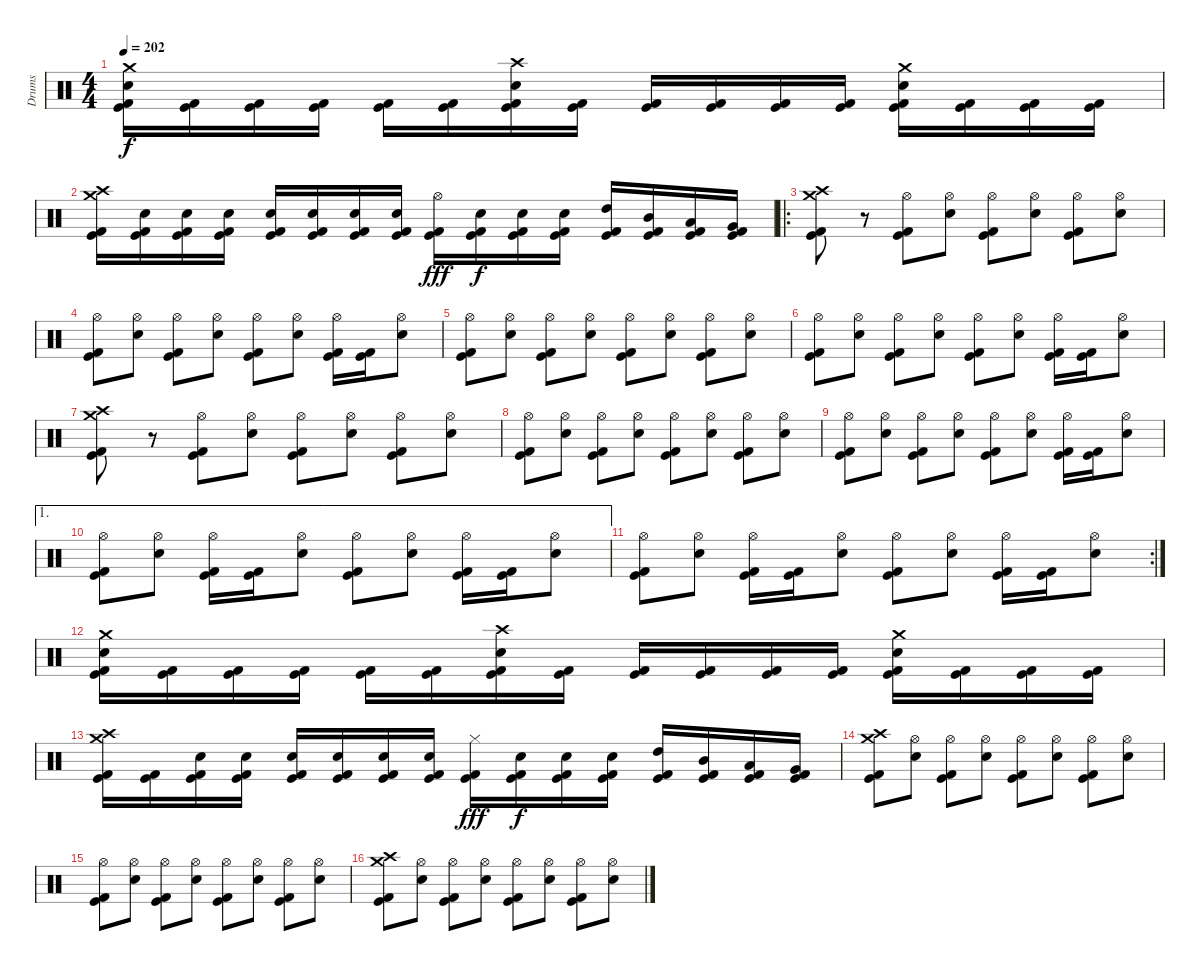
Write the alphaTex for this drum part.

\track ("Drums" "Drums") {instrument percussion}
\staff {score}
\articulation defaults
\ts (4 4)
\tempo 202
\clef neutral
\ks c
("Crash medium (hit)" "Electric Snare (hit)" "Kick (hit)" "Kick (hit) 2").16{dy f} ("Kick (hit)" "Kick (hit) 2").16 ("Kick (hit)" "Kick (hit) 2").16 ("Kick (hit)" "Kick (hit) 2").16 ("Kick (hit)" "Kick (hit) 2").16 ("Kick (hit)" "Kick (hit) 2").16 ("Crash high (hit)" "Electric Snare (hit)" "Kick (hit)" "Kick (hit) 2").16 ("Kick (hit)" "Kick (hit) 2").16 ("Kick (hit)" "Kick (hit) 2").16 ("Kick (hit)" "Kick (hit) 2").16 ("Kick (hit)" "Kick (hit) 2").16 ("Kick (hit)" "Kick (hit) 2").16 ("Crash medium (hit)" "Electric Snare (hit)" "Kick (hit)" "Kick (hit) 2").16 ("Kick (hit)" "Kick (hit) 2").16 ("Kick (hit)" "Kick (hit) 2").16 ("Kick (hit)" "Kick (hit) 2").16 |
("Crash medium (hit)" "Crash high (hit)" "Kick (hit)" "Kick (hit) 2").16 ("Electric Snare (hit)" "Kick (hit)" "Kick (hit) 2").16 ("Electric Snare (hit)" "Kick (hit)" "Kick (hit) 2").16 ("Electric Snare (hit)" "Kick (hit)" "Kick (hit) 2").16 ("Electric Snare (hit)" "Kick (hit)" "Kick (hit) 2").16 ("Electric Snare (hit)" "Kick (hit)" "Kick (hit) 2").16 ("Electric Snare (hit)" "Kick (hit)" "Kick (hit) 2").16 ("Electric Snare (hit)" "Kick (hit)" "Kick (hit) 2").16 ("Hi-Hat (open)" "Kick (hit)" "Kick (hit) 2").16{dy fff} ("Electric Snare (hit)" "Kick (hit)" "Kick (hit) 2").16{dy f} ("Electric Snare (hit)" "Kick (hit)" "Kick (hit) 2").16 ("Electric Snare (hit)" "Kick (hit)" "Kick (hit) 2").16 ("High Tom (hit)" "Kick (hit)" "Kick (hit) 2").16 ("Mid Tom (hit)" "Kick (hit)" "Kick (hit) 2").16 ("Low Tom (hit)" "Kick (hit)" "Kick (hit) 2").16 ("Very Low Tom (hit)" "Kick (hit)" "Kick (hit) 2").16 |
\ro
("Crash medium (hit)" "Crash high (hit)" "Kick (hit)" "Kick (hit) 2").8 r.8 ("Hi-Hat (open)" "Kick (hit)" "Kick (hit) 2").8 ("Hi-Hat (open)" "Electric Snare (hit)").8 ("Hi-Hat (open)" "Kick (hit)" "Kick (hit) 2").8 ("Hi-Hat (open)" "Electric Snare (hit)").8 ("Hi-Hat (open)" "Kick (hit)" "Kick (hit) 2").8 ("Hi-Hat (open)" "Electric Snare (hit)").8 |
("Hi-Hat (open)" "Kick (hit)" "Kick (hit) 2").8 ("Hi-Hat (open)" "Electric Snare (hit)").8 ("Hi-Hat (open)" "Kick (hit)" "Kick (hit) 2").8 ("Hi-Hat (open)" "Electric Snare (hit)").8 ("Hi-Hat (open)" "Kick (hit)" "Kick (hit) 2").8 ("Hi-Hat (open)" "Electric Snare (hit)").8 ("Hi-Hat (open)" "Kick (hit)" "Kick (hit) 2").16 ("Kick (hit)" "Kick (hit) 2").16 ("Hi-Hat (open)" "Electric Snare (hit)").8 |
("Hi-Hat (open)" "Kick (hit)" "Kick (hit) 2").8 ("Hi-Hat (open)" "Electric Snare (hit)").8 ("Hi-Hat (open)" "Kick (hit)" "Kick (hit) 2").8 ("Hi-Hat (open)" "Electric Snare (hit)").8 ("Hi-Hat (open)" "Kick (hit)" "Kick (hit) 2").8 ("Hi-Hat (open)" "Electric Snare (hit)").8 ("Hi-Hat (open)" "Kick (hit)" "Kick (hit) 2").8 ("Hi-Hat (open)" "Electric Snare (hit)").8 |
("Hi-Hat (open)" "Kick (hit)" "Kick (hit) 2").8 ("Hi-Hat (open)" "Electric Snare (hit)").8 ("Hi-Hat (open)" "Kick (hit)" "Kick (hit) 2").8 ("Hi-Hat (open)" "Electric Snare (hit)").8 ("Hi-Hat (open)" "Kick (hit)" "Kick (hit) 2").8 ("Hi-Hat (open)" "Electric Snare (hit)").8 ("Hi-Hat (open)" "Kick (hit)" "Kick (hit) 2").16 ("Kick (hit)" "Kick (hit) 2").16 ("Hi-Hat (open)" "Electric Snare (hit)").8 |
("Crash medium (hit)" "Crash high (hit)" "Kick (hit)" "Kick (hit) 2").8 r.8 ("Hi-Hat (open)" "Kick (hit)" "Kick (hit) 2").8 ("Hi-Hat (open)" "Electric Snare (hit)").8 ("Hi-Hat (open)" "Kick (hit)" "Kick (hit) 2").8 ("Hi-Hat (open)" "Electric Snare (hit)").8 ("Hi-Hat (open)" "Kick (hit)" "Kick (hit) 2").8 ("Hi-Hat (open)" "Electric Snare (hit)").8 |
("Hi-Hat (open)" "Kick (hit)" "Kick (hit) 2").8 ("Hi-Hat (open)" "Electric Snare (hit)").8 ("Hi-Hat (open)" "Kick (hit)" "Kick (hit) 2").8 ("Hi-Hat (open)" "Electric Snare (hit)").8 ("Hi-Hat (open)" "Kick (hit)" "Kick (hit) 2").8 ("Hi-Hat (open)" "Electric Snare (hit)").8 ("Hi-Hat (open)" "Kick (hit)" "Kick (hit) 2").8 ("Hi-Hat (open)" "Electric Snare (hit)").8 |
("Hi-Hat (open)" "Kick (hit)" "Kick (hit) 2").8 ("Hi-Hat (open)" "Electric Snare (hit)").8 ("Hi-Hat (open)" "Kick (hit)" "Kick (hit) 2").8 ("Hi-Hat (open)" "Electric Snare (hit)").8 ("Hi-Hat (open)" "Kick (hit)" "Kick (hit) 2").8 ("Hi-Hat (open)" "Electric Snare (hit)").8 ("Hi-Hat (open)" "Kick (hit)" "Kick (hit) 2").16 ("Kick (hit)" "Kick (hit) 2").16 ("Hi-Hat (open)" "Electric Snare (hit)").8 |
\ae 1
("Hi-Hat (open)" "Kick (hit)" "Kick (hit) 2").8 ("Hi-Hat (open)" "Electric Snare (hit)").8 ("Hi-Hat (open)" "Kick (hit)" "Kick (hit) 2").16 ("Kick (hit)" "Kick (hit) 2").16 ("Hi-Hat (open)" "Electric Snare (hit)").8 ("Hi-Hat (open)" "Kick (hit)" "Kick (hit) 2").8 ("Hi-Hat (open)" "Electric Snare (hit)").8 ("Hi-Hat (open)" "Kick (hit)" "Kick (hit) 2").16 ("Kick (hit)" "Kick (hit) 2").16 ("Hi-Hat (open)" "Electric Snare (hit)").8 |
\rc 2
("Hi-Hat (open)" "Kick (hit)" "Kick (hit) 2").8 ("Hi-Hat (open)" "Electric Snare (hit)").8 ("Hi-Hat (open)" "Kick (hit)" "Kick (hit) 2").16 ("Kick (hit)" "Kick (hit) 2").16 ("Hi-Hat (open)" "Electric Snare (hit)").8 ("Hi-Hat (open)" "Kick (hit)" "Kick (hit) 2").8 ("Hi-Hat (open)" "Electric Snare (hit)").8 ("Hi-Hat (open)" "Kick (hit)" "Kick (hit) 2").16 ("Kick (hit)" "Kick (hit) 2").16 ("Hi-Hat (open)" "Electric Snare (hit)").8 |
("Crash medium (hit)" "Electric Snare (hit)" "Kick (hit)" "Kick (hit) 2").16 ("Kick (hit)" "Kick (hit) 2").16 ("Kick (hit)" "Kick (hit) 2").16 ("Kick (hit)" "Kick (hit) 2").16 ("Kick (hit)" "Kick (hit) 2").16 ("Kick (hit)" "Kick (hit) 2").16 ("Crash high (hit)" "Electric Snare (hit)" "Kick (hit)" "Kick (hit) 2").16 ("Kick (hit)" "Kick (hit) 2").16 ("Kick (hit)" "Kick (hit) 2").16 ("Kick (hit)" "Kick (hit) 2").16 ("Kick (hit)" "Kick (hit) 2").16 ("Kick (hit)" "Kick (hit) 2").16 ("Crash medium (hit)" "Electric Snare (hit)" "Kick (hit)" "Kick (hit) 2").16 ("Kick (hit)" "Kick (hit) 2").16 ("Kick (hit)" "Kick (hit) 2").16 ("Kick (hit)" "Kick (hit) 2").16 |
("Crash medium (hit)" "Crash high (hit)" "Kick (hit)" "Kick (hit) 2").16 ("Kick (hit)" "Kick (hit) 2").16 ("Electric Snare (hit)" "Kick (hit)" "Kick (hit) 2").16 ("Electric Snare (hit)" "Kick (hit)" "Kick (hit) 2").16 ("Electric Snare (hit)" "Kick (hit)" "Kick (hit) 2").16 ("Electric Snare (hit)" "Kick (hit)" "Kick (hit) 2").16 ("Electric Snare (hit)" "Kick (hit)" "Kick (hit) 2").16 ("Electric Snare (hit)" "Kick (hit)" "Kick (hit) 2").16 ("Hi-Hat (closed)" "Kick (hit)" "Kick (hit) 2").16{dy fff} ("Electric Snare (hit)" "Kick (hit)" "Kick (hit) 2").16{dy f} ("Electric Snare (hit)" "Kick (hit)" "Kick (hit) 2").16 ("Electric Snare (hit)" "Kick (hit)" "Kick (hit) 2").16 ("High Tom (hit)" "Kick (hit)" "Kick (hit) 2").16 ("Mid Tom (hit)" "Kick (hit)" "Kick (hit) 2").16 ("Low Tom (hit)" "Kick (hit)" "Kick (hit) 2").16 ("Very Low Tom (hit)" "Kick (hit)" "Kick (hit) 2").16 |
("Crash medium (hit)" "Crash high (hit)" "Kick (hit)" "Kick (hit) 2").8 ("Hi-Hat (open)" "Electric Snare (hit)").8 ("Hi-Hat (open)" "Kick (hit)" "Kick (hit) 2").8 ("Hi-Hat (open)" "Electric Snare (hit)").8 ("Hi-Hat (open)" "Kick (hit)" "Kick (hit) 2").8 ("Hi-Hat (open)" "Electric Snare (hit)").8 ("Hi-Hat (open)" "Kick (hit)" "Kick (hit) 2").8 ("Hi-Hat (open)" "Electric Snare (hit)").8 |
("Hi-Hat (open)" "Kick (hit)" "Kick (hit) 2").8 ("Hi-Hat (open)" "Electric Snare (hit)").8 ("Hi-Hat (open)" "Kick (hit)" "Kick (hit) 2").8 ("Hi-Hat (open)" "Electric Snare (hit)").8 ("Hi-Hat (open)" "Kick (hit)" "Kick (hit) 2").8 ("Hi-Hat (open)" "Electric Snare (hit)").8 ("Hi-Hat (open)" "Kick (hit)" "Kick (hit) 2").8 ("Hi-Hat (open)" "Electric Snare (hit)").8 |
("Crash medium (hit)" "Crash high (hit)" "Kick (hit)" "Kick (hit) 2").8 ("Hi-Hat (open)" "Electric Snare (hit)").8 ("Hi-Hat (open)" "Kick (hit)" "Kick (hit) 2").8 ("Hi-Hat (open)" "Electric Snare (hit)").8 ("Hi-Hat (open)" "Kick (hit)" "Kick (hit) 2").8 ("Hi-Hat (open)" "Electric Snare (hit)").8 ("Hi-Hat (open)" "Kick (hit)" "Kick (hit) 2").8 ("Hi-Hat (open)" "Electric Snare (hit)").8
